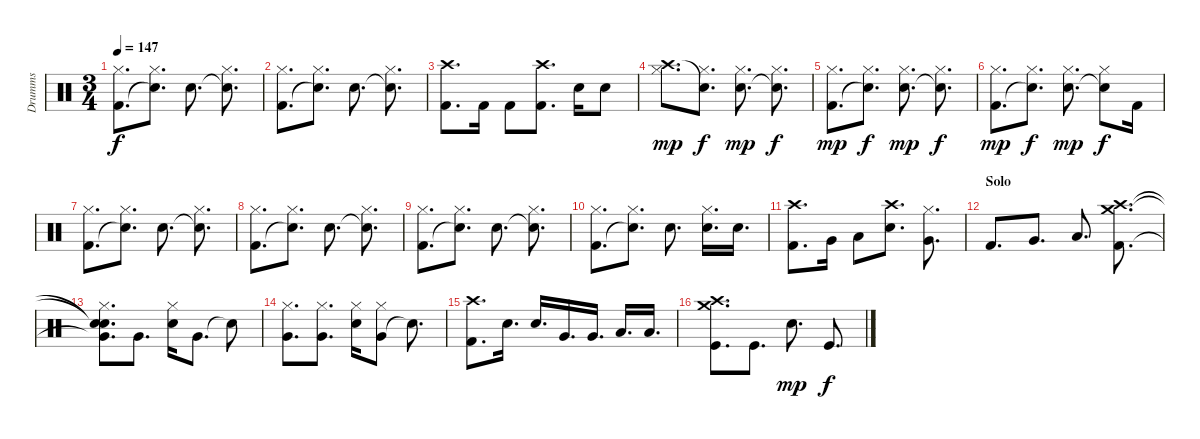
\track ("Drumms" "Drumms") {instrument percussion}
\staff {score}
\articulation defaults
\ts (3 4)
\tempo 147
\clef neutral
\ks c
("Kick (hit) 2" "Hi-Hat (closed)").8{d dy f} ("Snare (hit)"{t} "Hi-Hat (closed)").8{d} "Electric Snare (hit)".8{d} ("Snare (hit)"{t} "Hi-Hat (closed)").8{d} |
("Kick (hit) 2" "Hi-Hat (closed)").8{d} ("Snare (hit)"{t} "Hi-Hat (closed)").8{d} "Electric Snare (hit)".8{d} ("Snare (hit)"{t} "Hi-Hat (closed)").8{d} |
("Crash high (hit)" "Kick (hit) 2").8{d} "Kick (hit) 2".16 "Kick (hit) 2".8 ("Crash high (hit)" "Kick (hit) 2").8{d} "Electric Snare (hit)".16 "Electric Snare (hit)".8 |
("Crash high (hit)" "Hi-Hat (closed)").8{d dy mp} ("Snare (hit)"{t} "Hi-Hat (closed)").8{d dy f} ("Electric Snare (hit)" "Hi-Hat (closed)").8{d dy mp} ("Snare (hit)"{t} "Hi-Hat (closed)").8{d dy f} |
("Kick (hit) 2" "Hi-Hat (closed)").8{d dy mp} ("Snare (hit)"{t} "Hi-Hat (closed)").8{d dy f} ("Electric Snare (hit)" "Hi-Hat (closed)").8{d dy mp} ("Snare (hit)"{t} "Hi-Hat (closed)").8{d dy f} |
("Kick (hit) 2" "Hi-Hat (closed)").8{d dy mp} ("Snare (hit)"{t} "Hi-Hat (closed)").8{d dy f} ("Electric Snare (hit)" "Hi-Hat (closed)").8{d dy mp} ("Snare (hit)"{t} "Hi-Hat (closed)").8{dy f} "Kick (hit) 2".16 |
("Kick (hit) 2" "Hi-Hat (closed)").8{d} ("Snare (hit)"{t} "Hi-Hat (closed)").8{d} "Electric Snare (hit)".8{d} ("Snare (hit)"{t} "Hi-Hat (closed)").8{d} |
("Kick (hit) 2" "Hi-Hat (closed)").8{d} ("Snare (hit)"{t} "Hi-Hat (closed)").8{d} "Electric Snare (hit)".8{d} ("Snare (hit)"{t} "Hi-Hat (closed)").8{d} |
("Kick (hit) 2" "Hi-Hat (closed)").8{d} ("Snare (hit)"{t} "Hi-Hat (closed)").8{d} "Electric Snare (hit)".8{d} ("Snare (hit)"{t} "Hi-Hat (closed)").8{d} |
("Kick (hit) 2" "Hi-Hat (closed)").8{d} ("Snare (hit)"{t} "Hi-Hat (closed)").8{d} "Electric Snare (hit)".8{d} ("Electric Snare (hit)" "Hi-Hat (closed)").16{d} "Electric Snare (hit)".16{d} |
("Crash high (hit)" "Kick (hit) 2").8{d} "Very Low Tom (hit)".16 "Low Tom (hit)".8 ("Crash high (hit)" "Electric Snare (hit)").8{d} ("Very Low Tom (hit)" "Hi-Hat (closed)").8{d} |
\section ("" "Solo")
"Kick (hit) 2".8{d} "Very Low Tom (hit)".8{d} "Low Tom (hit)".8{d} ("Crash medium (hit)" "Kick (hit) 2" "Crash high (hit)").8{d} |
("Snare (hit)"{t} "Very Low Tom (hit)"{t} "Snare (hit)"{t} "Hi-Hat (closed)").8{d} "Very Low Tom (hit)".8{d} ("Electric Snare (hit)" "Hi-Hat (closed)").16 "Very Low Tom (hit)".8{d} "Snare (hit)"{t}.8 |
("Very Low Tom (hit)" "Hi-Hat (closed)").8{d} ("Very Low Tom (hit)" "Hi-Hat (closed)").8{d} ("Electric Snare (hit)" "Hi-Hat (closed)").16 ("Very Low Tom (hit)" "Hi-Hat (closed)").8 "Snare (hit)"{t}.8{d} |
("Crash high (hit)" "Kick (hit) 2").8{d} "Electric Snare (hit)".16{d} "Electric Snare (hit)".16{d} "Very Low Tom (hit)".16{d} "Very Low Tom (hit)".16{d} "Low Tom (hit)".16{d} "Low Tom (hit)".16{d} |
("Crash medium (hit)" "Crash high (hit)" "Kick (hit)").8{d} "Kick (hit)".8{d} "Electric Snare (hit)".8{d dy mp} "Kick (hit)".8{d dy f}
